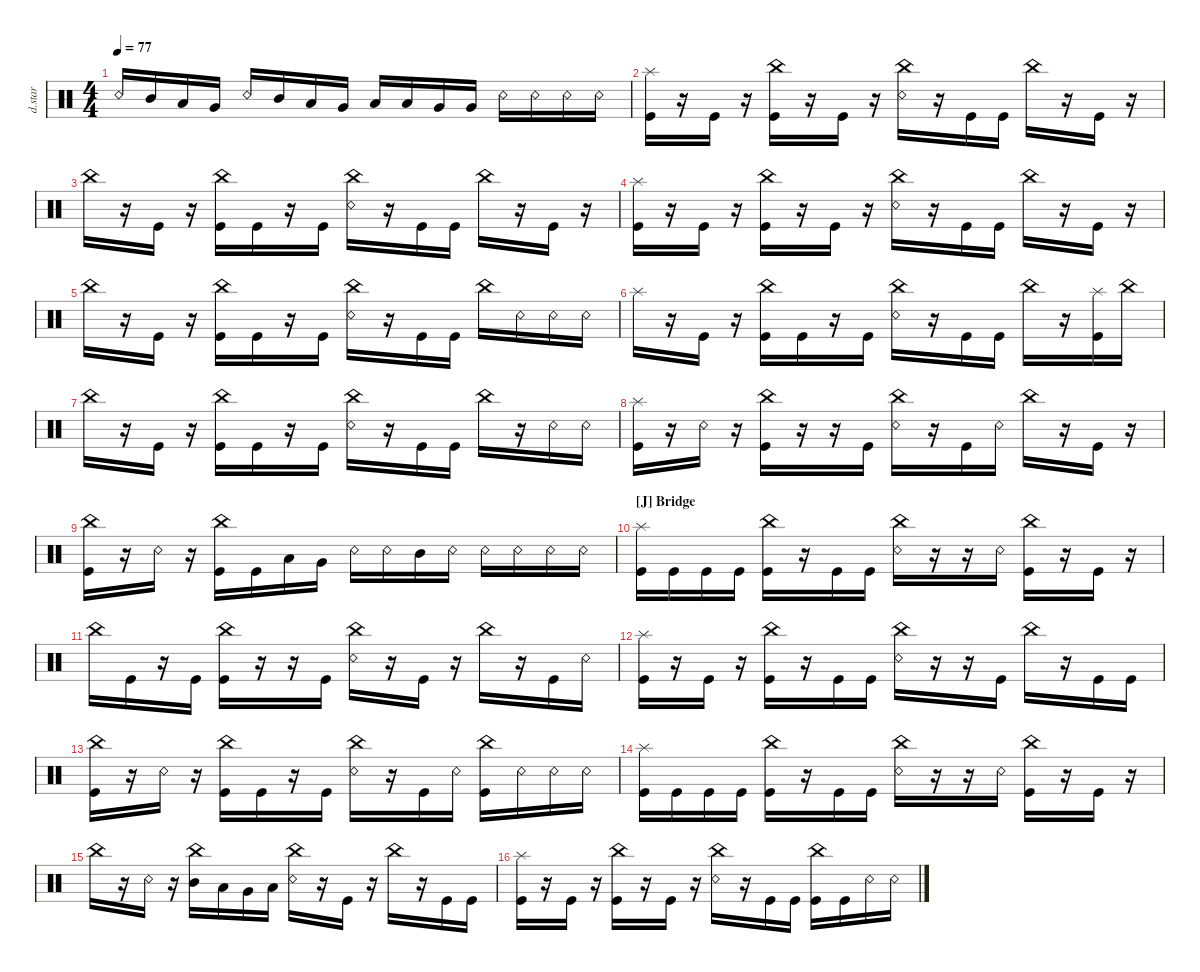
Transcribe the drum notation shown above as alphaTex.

\defaultSystemsLayout 4
\hideDynamics
\bracketExtendMode nobrackets
\otherSystemsTrackNameOrientation horizontal
\track ("Drumkit Star" "d.star") {instrument percussion}
\staff {score}
\articulation defaults
\ts (4 4)
\tempo 77
\clef neutral
\ks c "Snare (rim shot)".16{dy ff} "Mid Tom (hit)".16 "Low Tom (hit)".16 "Very Low Tom (hit)".16 "Snare (rim shot)".16 "Mid Tom (hit)".16 "Low Tom (hit)".16 "Very Low Tom (hit)".16 "Low Tom (hit)".16 "Low Tom (hit)".16 "Very Low Tom (hit)".16 "Very Low Tom (hit)".16 "Snare (rim shot)".16 "Snare (rim shot)".16 "Snare (rim shot)".16 "Snare (rim shot)".16
|
("Kick (hit)" "Splash (hit)").16 r.16 "Kick (hit)".16 r.16 ("Kick (hit)" "China (hit)").16 r.16 "Kick (hit)".16 r.16 ("Snare (rim shot)" "China (hit)").16 r.16 "Kick (hit)".16 "Kick (hit)".16 "China (hit)".16 r.16 "Kick (hit)".16 r.16 |
"China (hit)".16 r.16 "Kick (hit)".16 r.16 ("Kick (hit)" "China (hit)").16 "Kick (hit)".16 r.16 "Kick (hit)".16 ("Snare (rim shot)" "China (hit)").16 r.16 "Kick (hit)".16 "Kick (hit)".16 "China (hit)".16 r.16 "Kick (hit)".16 r.16 |
("Kick (hit)" "Splash (hit)").16 r.16 "Kick (hit)".16 r.16 ("Kick (hit)" "China (hit)").16 r.16 "Kick (hit)".16 r.16 ("Snare (rim shot)" "China (hit)").16 r.16 "Kick (hit)".16 "Kick (hit)".16 "China (hit)".16 r.16 "Kick (hit)".16 r.16 |
"China (hit)".16 r.16 "Kick (hit)".16 r.16 ("Kick (hit)" "China (hit)").16 "Kick (hit)".16 r.16 "Kick (hit)".16 ("Snare (rim shot)" "China (hit)").16 r.16 "Kick (hit)".16 "Kick (hit)".16 "China (hit)".16 "Snare (rim shot)".16 "Snare (rim shot)".16 "Snare (rim shot)".16 |
"Splash (hit)".16 r.16 "Kick (hit)".16 r.16 ("Kick (hit)" "China (hit)").16 "Kick (hit)".16 r.16 "Kick (hit)".16 ("Snare (rim shot)" "China (hit)").16 r.16 "Kick (hit)".16 "Kick (hit)".16 "China (hit)".16 r.16 ("Splash (hit)" "Kick (hit)").16 "China (hit)".16 |
"China (hit)".16 r.16 "Kick (hit)".16 r.16 ("Kick (hit)" "China (hit)").16 "Kick (hit)".16 r.16 "Kick (hit)".16 ("Snare (rim shot)" "China (hit)").16 r.16 "Kick (hit)".16 "Kick (hit)".16 "China (hit)".16 r.16 "Snare (rim shot)".16 "Snare (rim shot)".16 |
("Kick (hit)" "Splash (hit)").16 r.16 "Snare (rim shot)".16 r.16 ("Kick (hit)" "China (hit)").16 r.16 r.16 "Kick (hit)".16 ("Snare (rim shot)" "China (hit)").16 r.16 "Kick (hit)".16 "Snare (rim shot)".16 "China (hit)".16 r.16 "Kick (hit)".16 r.16 |
("Kick (hit)" "China (hit)").16 r.16 "Snare (rim shot)".16 r.16 ("Kick (hit)" "China (hit)").16 "Kick (hit)".16 "Low Tom (hit)".16 "Very Low Tom (hit)".16 "Snare (rim shot)".16 "Snare (rim shot)".16 "Mid Tom (hit)".16 "Snare (rim shot)".16 "Snare (rim shot)".16 "Snare (rim shot)".16 "Snare (rim shot)".16 "Snare (rim shot)".16 |
\section ("J" "Bridge")
("Kick (hit)" "Splash (hit)").16 "Kick (hit)".16 "Kick (hit)".16 "Kick (hit)".16 ("Kick (hit)" "China (hit)").16 r.16 "Kick (hit)".16 "Kick (hit)".16 ("Snare (rim shot)" "China (hit)").16 r.16 r.16 "Snare (rim shot)".16 ("Kick (hit)" "China (hit)").16 r.16 "Kick (hit)".16 r.16 |
"China (hit)".16 "Kick (hit)".16 r.16 "Kick (hit)".16 ("Kick (hit)" "China (hit)").16 r.16 r.16 "Kick (hit)".16 ("Snare (rim shot)" "China (hit)").16 r.16 "Kick (hit)".16 r.16 "China (hit)".16 r.16 "Kick (hit)".16 "Snare (rim shot)".16 |
("Kick (hit)" "Splash (hit)").16 r.16 "Kick (hit)".16 r.16 ("Kick (hit)" "China (hit)").16 r.16 "Kick (hit)".16 "Kick (hit)".16 ("Snare (rim shot)" "China (hit)").16 r.16 r.16 "Kick (hit)".16 "China (hit)".16 r.16 "Kick (hit)".16 "Kick (hit)".16 |
("Kick (hit)" "China (hit)").16 r.16 "Snare (rim shot)".16 r.16 ("Kick (hit)" "China (hit)").16 "Kick (hit)".16 r.16 "Kick (hit)".16 ("Snare (rim shot)" "China (hit)").16 r.16 "Kick (hit)".16 "Snare (rim shot)".16 ("Kick (hit)" "China (hit)").16 "Snare (rim shot)".16 "Snare (rim shot)".16 "Snare (rim shot)".16 |
("Kick (hit)" "Splash (hit)").16 "Kick (hit)".16 "Kick (hit)".16 "Kick (hit)".16 ("Kick (hit)" "China (hit)").16 r.16 "Kick (hit)".16 "Kick (hit)".16 ("Snare (rim shot)" "China (hit)").16 r.16 r.16 "Snare (rim shot)".16 ("Kick (hit)" "China (hit)").16 r.16 "Kick (hit)".16 r.16 |
"China (hit)".16 r.16 "Snare (rim shot)".16 r.16 ("Mid Tom (hit)" "China (hit)").16 "Low Tom (hit)".16 "Very Low Tom (hit)".16 "Low Tom (hit)".16 ("Snare (rim shot)" "China (hit)").16 r.16 "Kick (hit)".16 r.16 "China (hit)".16 r.16 "Kick (hit)".16 "Kick (hit)".16 |
("Kick (hit)" "Splash (hit)").16 r.16 "Kick (hit)".16 r.16 ("Kick (hit)" "China (hit)").16 r.16 "Kick (hit)".16 r.16 ("Snare (rim shot)" "China (hit)").16 r.16 "Kick (hit)".16 "Kick (hit)".16 ("Kick (hit)" "China (hit)").16 "Kick (hit)".16 "Snare (rim shot)".16 "Snare (rim shot)".16
